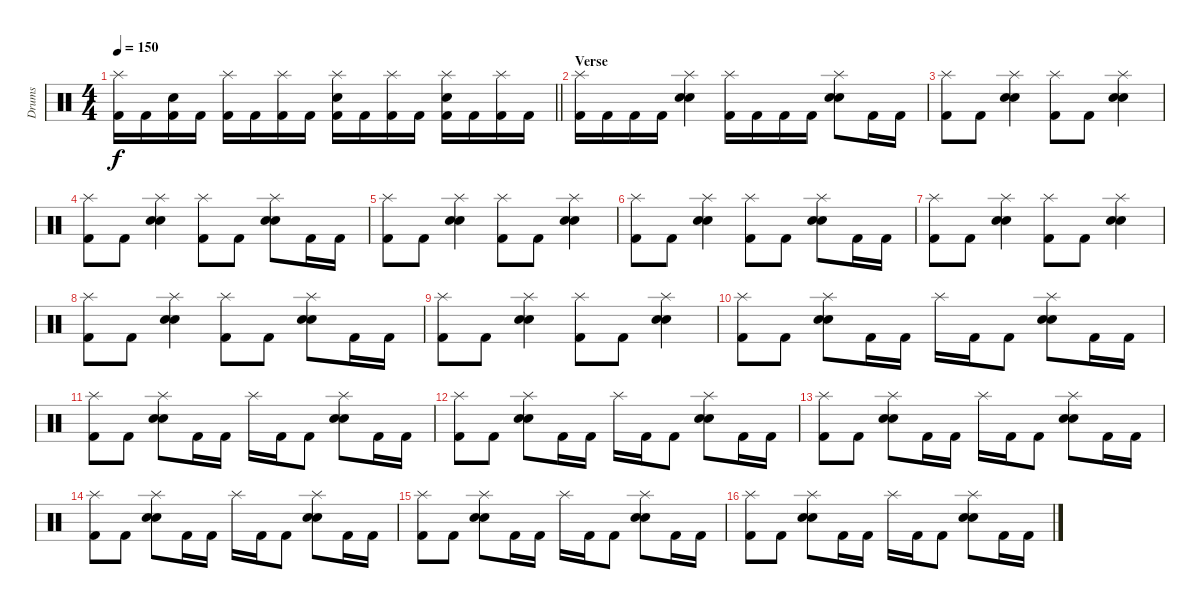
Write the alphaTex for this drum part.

\track ("Drums" "Drums") {instrument percussion}
\staff {score}
\articulation defaults
\ts (4 4)
\tempo 150
\clef neutral
\barLineRight lightlight
\ks c
("Splash (hit)" "Kick (hit) 2").16{dy f} "Kick (hit) 2".16 ("Electric Snare (hit)" "Kick (hit) 2").16 "Kick (hit) 2".16 ("Splash (hit)" "Kick (hit) 2").16 "Kick (hit) 2".16 ("Splash (hit)" "Kick (hit) 2").16 "Kick (hit) 2".16 ("Splash (hit)" "Electric Snare (hit)" "Kick (hit) 2").16 "Kick (hit) 2".16 ("Splash (hit)" "Kick (hit) 2").16 "Kick (hit) 2".16 ("Splash (hit)" "Electric Snare (hit)" "Kick (hit) 2").16 "Kick (hit) 2".16 ("Splash (hit)" "Kick (hit) 2").16 "Kick (hit) 2".16 |
\section ("" "Verse")
("Splash (hit)" "Kick (hit) 2").16 "Kick (hit) 2".16 "Kick (hit) 2".16 "Kick (hit) 2".16 ("Splash (hit)" "Electric Snare (hit)" "Snare (hit) 2").4 ("Splash (hit)" "Kick (hit) 2").16 "Kick (hit) 2".16 "Kick (hit) 2".16 "Kick (hit) 2".16 ("Splash (hit)" "Electric Snare (hit)" "Snare (hit) 2").8 "Kick (hit) 2".16 "Kick (hit) 2".16 |
("Splash (hit)" "Kick (hit) 2").8 "Kick (hit) 2".8 ("Splash (hit)" "Electric Snare (hit)" "Snare (hit) 2").4 ("Splash (hit)" "Kick (hit) 2").8 "Kick (hit) 2".8 ("Splash (hit)" "Electric Snare (hit)" "Snare (hit) 2").4 |
("Splash (hit)" "Kick (hit) 2").8 "Kick (hit) 2".8 ("Splash (hit)" "Electric Snare (hit)" "Snare (hit) 2").4 ("Splash (hit)" "Kick (hit) 2").8 "Kick (hit) 2".8 ("Splash (hit)" "Electric Snare (hit)" "Snare (hit) 2").8 "Kick (hit) 2".16 "Kick (hit) 2".16 |
("Splash (hit)" "Kick (hit) 2").8 "Kick (hit) 2".8 ("Splash (hit)" "Electric Snare (hit)" "Snare (hit) 2").4 ("Splash (hit)" "Kick (hit) 2").8 "Kick (hit) 2".8 ("Splash (hit)" "Electric Snare (hit)" "Snare (hit) 2").4 |
("Splash (hit)" "Kick (hit) 2").8 "Kick (hit) 2".8 ("Splash (hit)" "Electric Snare (hit)" "Snare (hit) 2").4 ("Splash (hit)" "Kick (hit) 2").8 "Kick (hit) 2".8 ("Splash (hit)" "Electric Snare (hit)" "Snare (hit) 2").8 "Kick (hit) 2".16 "Kick (hit) 2".16 |
("Splash (hit)" "Kick (hit) 2").8 "Kick (hit) 2".8 ("Splash (hit)" "Electric Snare (hit)" "Snare (hit) 2").4 ("Splash (hit)" "Kick (hit) 2").8 "Kick (hit) 2".8 ("Splash (hit)" "Electric Snare (hit)" "Snare (hit) 2").4 |
("Splash (hit)" "Kick (hit) 2").8 "Kick (hit) 2".8 ("Splash (hit)" "Electric Snare (hit)" "Snare (hit) 2").4 ("Splash (hit)" "Kick (hit) 2").8 "Kick (hit) 2".8 ("Splash (hit)" "Electric Snare (hit)" "Snare (hit) 2").8 "Kick (hit) 2".16 "Kick (hit) 2".16 |
("Splash (hit)" "Kick (hit) 2").8 "Kick (hit) 2".8 ("Splash (hit)" "Electric Snare (hit)" "Snare (hit) 2").4 ("Splash (hit)" "Kick (hit) 2").8 "Kick (hit) 2".8 ("Splash (hit)" "Electric Snare (hit)" "Snare (hit) 2").4 |
("Splash (hit)" "Kick (hit) 2").8 "Kick (hit) 2".8 ("Splash (hit)" "Electric Snare (hit)" "Snare (hit) 2").8 "Kick (hit) 2".16 "Kick (hit) 2".16 "Splash (hit)".16 "Kick (hit) 2".16 "Kick (hit) 2".8 ("Splash (hit)" "Electric Snare (hit)" "Snare (hit) 2").8 "Kick (hit) 2".16 "Kick (hit) 2".16 |
("Splash (hit)" "Kick (hit) 2").8 "Kick (hit) 2".8 ("Splash (hit)" "Electric Snare (hit)" "Snare (hit) 2").8 "Kick (hit) 2".16 "Kick (hit) 2".16 "Splash (hit)".16 "Kick (hit) 2".16 "Kick (hit) 2".8 ("Splash (hit)" "Electric Snare (hit)" "Snare (hit) 2").8 "Kick (hit) 2".16 "Kick (hit) 2".16 |
("Splash (hit)" "Kick (hit) 2").8 "Kick (hit) 2".8 ("Splash (hit)" "Electric Snare (hit)" "Snare (hit) 2").8 "Kick (hit) 2".16 "Kick (hit) 2".16 "Splash (hit)".16 "Kick (hit) 2".16 "Kick (hit) 2".8 ("Splash (hit)" "Electric Snare (hit)" "Snare (hit) 2").8 "Kick (hit) 2".16 "Kick (hit) 2".16 |
("Splash (hit)" "Kick (hit) 2").8 "Kick (hit) 2".8 ("Splash (hit)" "Electric Snare (hit)" "Snare (hit) 2").8 "Kick (hit) 2".16 "Kick (hit) 2".16 "Splash (hit)".16 "Kick (hit) 2".16 "Kick (hit) 2".8 ("Splash (hit)" "Electric Snare (hit)" "Snare (hit) 2").8 "Kick (hit) 2".16 "Kick (hit) 2".16 |
("Splash (hit)" "Kick (hit) 2").8 "Kick (hit) 2".8 ("Splash (hit)" "Electric Snare (hit)" "Snare (hit) 2").8 "Kick (hit) 2".16 "Kick (hit) 2".16 "Splash (hit)".16 "Kick (hit) 2".16 "Kick (hit) 2".8 ("Splash (hit)" "Electric Snare (hit)" "Snare (hit) 2").8 "Kick (hit) 2".16 "Kick (hit) 2".16 |
("Splash (hit)" "Kick (hit) 2").8 "Kick (hit) 2".8 ("Splash (hit)" "Electric Snare (hit)" "Snare (hit) 2").8 "Kick (hit) 2".16 "Kick (hit) 2".16 "Splash (hit)".16 "Kick (hit) 2".16 "Kick (hit) 2".8 ("Splash (hit)" "Electric Snare (hit)" "Snare (hit) 2").8 "Kick (hit) 2".16 "Kick (hit) 2".16 |
("Splash (hit)" "Kick (hit) 2").8 "Kick (hit) 2".8 ("Splash (hit)" "Electric Snare (hit)" "Snare (hit) 2").8 "Kick (hit) 2".16 "Kick (hit) 2".16 "Splash (hit)".16 "Kick (hit) 2".16 "Kick (hit) 2".8 ("Splash (hit)" "Electric Snare (hit)" "Snare (hit) 2").8 "Kick (hit) 2".16 "Kick (hit) 2".16
